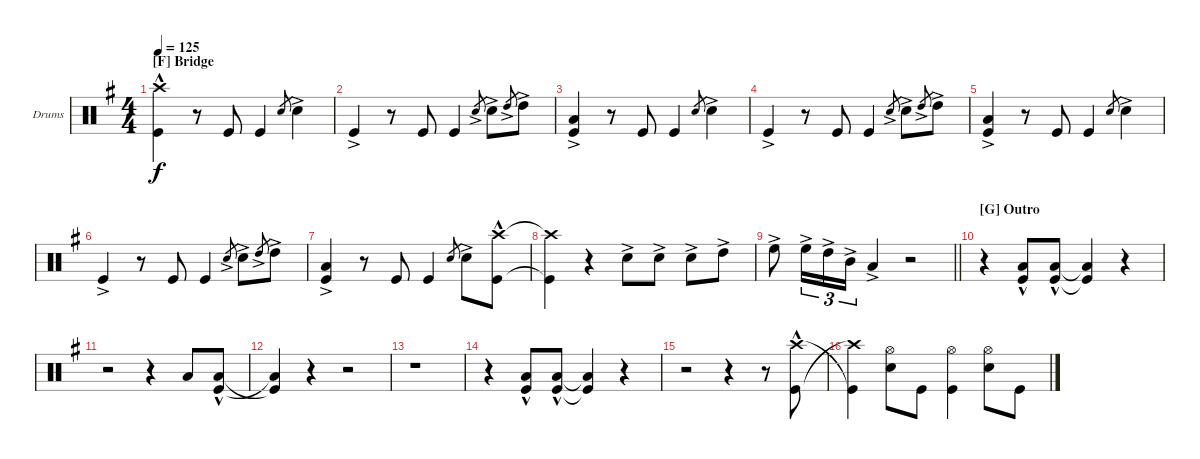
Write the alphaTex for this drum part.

\defaultSystemsLayout 4
\bracketExtendMode groupsimilarinstruments
\firstSystemTrackNameOrientation horizontal
\otherSystemsTrackNameOrientation horizontal
\track ("Mark Cavarzan Drums" "Drums") {instrument percussion}
\staff {score}
\articulation defaults
\ts (4 4)
\section ("F" "Bridge")
\tempo 125
\clef neutral
\ks g
("Kick (hit)"{hac} "Crash high (hit)"{hac}).4{dy f} r.8 "Kick (hit)".8 "Kick (hit)".4 "Snare (hit) 2".8{gr} "Snare (hit) 2"{ac}.4 |
"Kick (hit)"{ac}.4 r.8 "Kick (hit)".8 "Kick (hit)".4 "Snare (hit) 2"{ac}.8{gr} "Snare (hit) 2"{ac}.8 "High Tom (hit)"{ac}.8{gr} "High Tom (hit)"{ac}.8 |
("Kick (hit)"{ac} "Low Tom (hit)").4 r.8 "Kick (hit)".8 "Kick (hit)".4 "Snare (hit) 2".8{gr} "Snare (hit) 2"{ac}.4 |
"Kick (hit)"{ac}.4 r.8 "Kick (hit)".8 "Kick (hit)".4 "Snare (hit) 2"{ac}.8{gr} "Snare (hit) 2"{ac}.8 "High Tom (hit)"{ac}.8{gr} "High Tom (hit)"{ac}.8 |
("Kick (hit)"{ac} "Low Tom (hit)").4 r.8 "Kick (hit)".8 "Kick (hit)".4 "Snare (hit) 2".8{gr} "Snare (hit) 2"{ac}.4 |
"Kick (hit)"{ac}.4 r.8 "Kick (hit)".8 "Kick (hit)".4 "Snare (hit) 2"{ac}.8{gr} "Snare (hit) 2"{ac}.8 "High Tom (hit)"{ac}.8{gr} "High Tom (hit)"{ac}.8 |
("Kick (hit)"{ac} "Low Tom (hit)").4 r.8 "Kick (hit)".8 "Kick (hit)".4 "Snare (hit) 2".8{gr} "Snare (hit) 2"{ac}.8 ("Kick (hit)"{hac} "Crash high (hit)"{hac}).8 |
("Kick (hit)"{t} "Crash high (hit)"{t}).4 r.4 "Snare (hit) 2"{ac}.8 "Snare (hit) 2"{ac}.8 "Snare (hit) 2"{ac}.8 "High Tom (hit)"{ac}.8 |
\barLineRight lightlight "High Floor Tom (hit)"{ac}.8 "High Floor Tom (hit)"{ac}.16{tu (3 2)} "High Tom (hit)"{ac}.16{tu (3 2)} "Mid Tom (hit)"{ac}.16{tu (3 2)} "Low Tom (hit)"{ac}.4
r.2 |
\section ("G" "Outro")
r.4 ("Kick (hit)"{hac} "Low Tom (hit)"{hac}).8 ("Kick (hit)"{hac} "Low Tom (hit)"{hac}).8 ("Kick (hit)"{t} "Low Tom (hit)"{t}).4 r.4 |
r.2 r.4 "Low Tom (hit)".8 ("Low Tom (hit)"{hac} "Kick (hit)"{hac}).8 |
("Kick (hit)"{t} "Low Tom (hit)"{t}).4 r.4 r.2 |
r.1 |
r.4 ("Kick (hit)"{hac} "Low Tom (hit)"{hac}).8 ("Kick (hit)"{hac} "Low Tom (hit)"{hac}).8 ("Kick (hit)"{t} "Low Tom (hit)"{t}).4 r.4 |
r.2 r.4 r.8 ("Kick (hit)"{hac} "Crash high (hit)"{hac}).8 |
("Crash high (hit)"{t} "Kick (hit)"{t}).4 ("Snare (hit) 2" "Hi-Hat (open)").8 "Kick (hit)".8 ("Kick (hit)" "Hi-Hat (open)").4 ("Snare (hit) 2" "Hi-Hat (open)").8 "Kick (hit)".8
